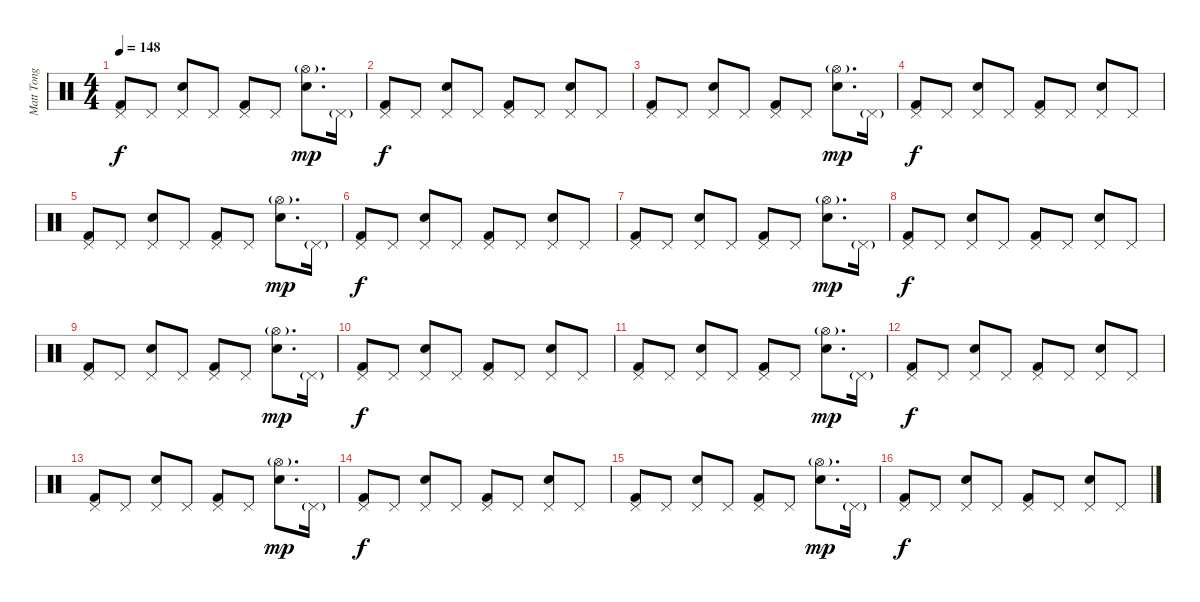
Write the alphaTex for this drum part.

\track ("Matt Tong" "Matt Tong") {instrument percussion}
\staff {score}
\articulation defaults
\ts (4 4)
\tempo 148
\clef neutral
\ks c
("Pedal Hi-Hat (hit)" "Kick (hit) 2").8{dy f} "Pedal Hi-Hat (hit)".8 ("Pedal Hi-Hat (hit)" "Electric Snare (hit)").8 "Pedal Hi-Hat (hit)".8 ("Pedal Hi-Hat (hit)" "Kick (hit) 2").8 "Pedal Hi-Hat (hit)".8 ("Hi-Hat (open)"{g} "Electric Snare (hit)").8{d dy mp} "Pedal Hi-Hat (hit)"{g}.16 |
("Pedal Hi-Hat (hit)" "Kick (hit) 2").8{dy f} "Pedal Hi-Hat (hit)".8 ("Pedal Hi-Hat (hit)" "Electric Snare (hit)").8 "Pedal Hi-Hat (hit)".8 ("Pedal Hi-Hat (hit)" "Kick (hit) 2").8 "Pedal Hi-Hat (hit)".8 ("Pedal Hi-Hat (hit)" "Electric Snare (hit)").8 "Pedal Hi-Hat (hit)".8 |
("Pedal Hi-Hat (hit)" "Kick (hit) 2").8 "Pedal Hi-Hat (hit)".8 ("Pedal Hi-Hat (hit)" "Electric Snare (hit)").8 "Pedal Hi-Hat (hit)".8 ("Pedal Hi-Hat (hit)" "Kick (hit) 2").8 "Pedal Hi-Hat (hit)".8 ("Hi-Hat (open)"{g} "Electric Snare (hit)").8{d dy mp} "Pedal Hi-Hat (hit)"{g}.16 |
("Pedal Hi-Hat (hit)" "Kick (hit) 2").8{dy f} "Pedal Hi-Hat (hit)".8 ("Pedal Hi-Hat (hit)" "Electric Snare (hit)").8 "Pedal Hi-Hat (hit)".8 ("Pedal Hi-Hat (hit)" "Kick (hit) 2").8 "Pedal Hi-Hat (hit)".8 ("Pedal Hi-Hat (hit)" "Electric Snare (hit)").8 "Pedal Hi-Hat (hit)".8 |
("Pedal Hi-Hat (hit)" "Kick (hit) 2").8 "Pedal Hi-Hat (hit)".8 ("Pedal Hi-Hat (hit)" "Electric Snare (hit)").8 "Pedal Hi-Hat (hit)".8 ("Pedal Hi-Hat (hit)" "Kick (hit) 2").8 "Pedal Hi-Hat (hit)".8 ("Hi-Hat (open)"{g} "Electric Snare (hit)").8{d dy mp} "Pedal Hi-Hat (hit)"{g}.16 |
("Pedal Hi-Hat (hit)" "Kick (hit) 2").8{dy f} "Pedal Hi-Hat (hit)".8 ("Pedal Hi-Hat (hit)" "Electric Snare (hit)").8 "Pedal Hi-Hat (hit)".8 ("Pedal Hi-Hat (hit)" "Kick (hit) 2").8 "Pedal Hi-Hat (hit)".8 ("Pedal Hi-Hat (hit)" "Electric Snare (hit)").8 "Pedal Hi-Hat (hit)".8 |
("Pedal Hi-Hat (hit)" "Kick (hit) 2").8 "Pedal Hi-Hat (hit)".8 ("Pedal Hi-Hat (hit)" "Electric Snare (hit)").8 "Pedal Hi-Hat (hit)".8 ("Pedal Hi-Hat (hit)" "Kick (hit) 2").8 "Pedal Hi-Hat (hit)".8 ("Hi-Hat (open)"{g} "Electric Snare (hit)").8{d dy mp} "Pedal Hi-Hat (hit)"{g}.16 |
("Pedal Hi-Hat (hit)" "Kick (hit) 2").8{dy f} "Pedal Hi-Hat (hit)".8 ("Pedal Hi-Hat (hit)" "Electric Snare (hit)").8 "Pedal Hi-Hat (hit)".8 ("Pedal Hi-Hat (hit)" "Kick (hit) 2").8 "Pedal Hi-Hat (hit)".8 ("Pedal Hi-Hat (hit)" "Electric Snare (hit)").8 "Pedal Hi-Hat (hit)".8 |
("Pedal Hi-Hat (hit)" "Kick (hit) 2").8 "Pedal Hi-Hat (hit)".8 ("Pedal Hi-Hat (hit)" "Electric Snare (hit)").8 "Pedal Hi-Hat (hit)".8 ("Pedal Hi-Hat (hit)" "Kick (hit) 2").8 "Pedal Hi-Hat (hit)".8 ("Hi-Hat (open)"{g} "Electric Snare (hit)").8{d dy mp} "Pedal Hi-Hat (hit)"{g}.16 |
("Pedal Hi-Hat (hit)" "Kick (hit) 2").8{dy f} "Pedal Hi-Hat (hit)".8 ("Pedal Hi-Hat (hit)" "Electric Snare (hit)").8 "Pedal Hi-Hat (hit)".8 ("Pedal Hi-Hat (hit)" "Kick (hit) 2").8 "Pedal Hi-Hat (hit)".8 ("Pedal Hi-Hat (hit)" "Electric Snare (hit)").8 "Pedal Hi-Hat (hit)".8 |
("Pedal Hi-Hat (hit)" "Kick (hit) 2").8 "Pedal Hi-Hat (hit)".8 ("Pedal Hi-Hat (hit)" "Electric Snare (hit)").8 "Pedal Hi-Hat (hit)".8 ("Pedal Hi-Hat (hit)" "Kick (hit) 2").8 "Pedal Hi-Hat (hit)".8 ("Hi-Hat (open)"{g} "Electric Snare (hit)").8{d dy mp} "Pedal Hi-Hat (hit)"{g}.16 |
("Pedal Hi-Hat (hit)" "Kick (hit) 2").8{dy f} "Pedal Hi-Hat (hit)".8 ("Pedal Hi-Hat (hit)" "Electric Snare (hit)").8 "Pedal Hi-Hat (hit)".8 ("Pedal Hi-Hat (hit)" "Kick (hit) 2").8 "Pedal Hi-Hat (hit)".8 ("Pedal Hi-Hat (hit)" "Electric Snare (hit)").8 "Pedal Hi-Hat (hit)".8 |
("Pedal Hi-Hat (hit)" "Kick (hit) 2").8 "Pedal Hi-Hat (hit)".8 ("Pedal Hi-Hat (hit)" "Electric Snare (hit)").8 "Pedal Hi-Hat (hit)".8 ("Pedal Hi-Hat (hit)" "Kick (hit) 2").8 "Pedal Hi-Hat (hit)".8 ("Hi-Hat (open)"{g} "Electric Snare (hit)").8{d dy mp} "Pedal Hi-Hat (hit)"{g}.16 |
("Pedal Hi-Hat (hit)" "Kick (hit) 2").8{dy f} "Pedal Hi-Hat (hit)".8 ("Pedal Hi-Hat (hit)" "Electric Snare (hit)").8 "Pedal Hi-Hat (hit)".8 ("Pedal Hi-Hat (hit)" "Kick (hit) 2").8 "Pedal Hi-Hat (hit)".8 ("Pedal Hi-Hat (hit)" "Electric Snare (hit)").8 "Pedal Hi-Hat (hit)".8 |
("Pedal Hi-Hat (hit)" "Kick (hit) 2").8 "Pedal Hi-Hat (hit)".8 ("Pedal Hi-Hat (hit)" "Electric Snare (hit)").8 "Pedal Hi-Hat (hit)".8 ("Pedal Hi-Hat (hit)" "Kick (hit) 2").8 "Pedal Hi-Hat (hit)".8 ("Hi-Hat (open)"{g} "Electric Snare (hit)").8{d dy mp} "Pedal Hi-Hat (hit)"{g}.16 |
("Pedal Hi-Hat (hit)" "Kick (hit) 2").8{dy f} "Pedal Hi-Hat (hit)".8 ("Pedal Hi-Hat (hit)" "Electric Snare (hit)").8 "Pedal Hi-Hat (hit)".8 ("Pedal Hi-Hat (hit)" "Kick (hit) 2").8 "Pedal Hi-Hat (hit)".8 ("Pedal Hi-Hat (hit)" "Electric Snare (hit)").8 "Pedal Hi-Hat (hit)".8
